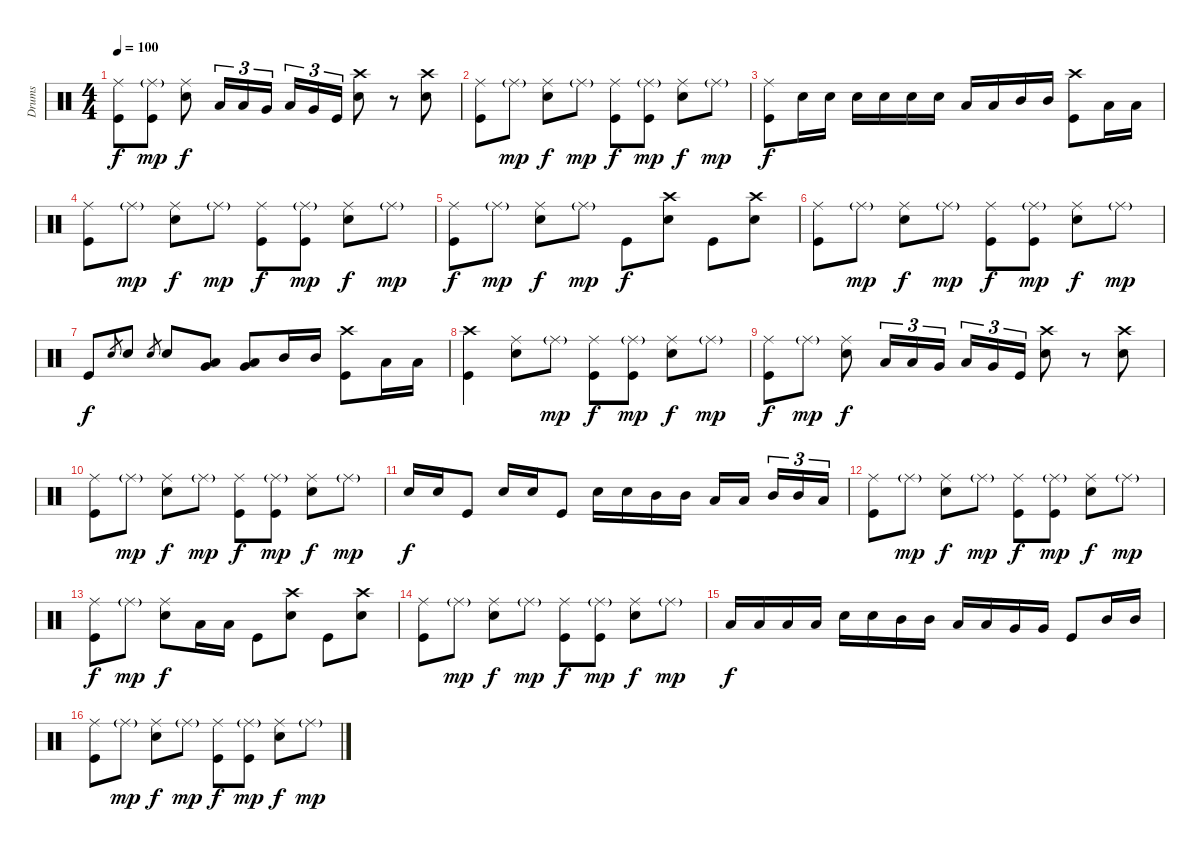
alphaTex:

\track ("Drums" "Drums") {instrument percussion}
\staff {score}
\articulation defaults
\ts (4 4)
\tempo 100
\clef neutral
\ks c
("Ride (middle)" "Kick (hit)").8{dy f} ("Ride (middle)"{g} "Kick (hit)").8{dy mp} ("Ride (middle)" "Snare (hit) 2").8{dy f} "Low Tom (hit)".16{tu (3 2)} "Low Tom (hit)".16{tu (3 2)} "Very Low Tom (hit)".16{tu (3 2)} "Low Tom (hit)".16{tu (3 2)} "Very Low Tom (hit)".16{tu (3 2)} "Kick (hit)".16{tu (3 2)} ("Crash high (hit)" "Snare (hit) 2").8 r.8 ("Crash high (hit)" "Snare (hit) 2").8 |
("Ride (middle)" "Kick (hit)").8 "Ride (middle)"{g}.8{dy mp} ("Ride (middle)" "Snare (hit) 2").8{dy f} "Ride (middle)"{g}.8{dy mp} ("Ride (middle)" "Kick (hit)").8{dy f} ("Ride (middle)"{g} "Kick (hit)").8{dy mp} ("Ride (middle)" "Snare (hit) 2").8{dy f} "Ride (middle)"{g}.8{dy mp} |
("Ride (middle)" "Kick (hit)").8{dy f} "Snare (hit) 2".16 "Snare (hit) 2".16 "Snare (hit) 2".16 "Snare (hit) 2".16 "Snare (hit) 2".16 "Snare (hit) 2".16 "Low Tom (hit)".16 "Low Tom (hit)".16 "Mid Tom (hit)".16 "Mid Tom (hit)".16 ("Crash high (hit)" "Kick (hit)").8 "Low Tom (hit)".16 "Low Tom (hit)".16 |
("Ride (middle)" "Kick (hit)").8 "Ride (middle)"{g}.8{dy mp} ("Ride (middle)" "Snare (hit) 2").8{dy f} "Ride (middle)"{g}.8{dy mp} ("Ride (middle)" "Kick (hit)").8{dy f} ("Ride (middle)"{g} "Kick (hit)").8{dy mp} ("Ride (middle)" "Snare (hit) 2").8{dy f} "Ride (middle)"{g}.8{dy mp} |
("Ride (middle)" "Kick (hit)").8{dy f} "Ride (middle)"{g}.8{dy mp} ("Ride (middle)" "Snare (hit) 2").8{dy f} "Ride (middle)"{g}.8{dy mp} "Kick (hit)".8{dy f} ("Crash high (hit)" "Snare (hit) 2").8 "Kick (hit)".8 ("Crash high (hit)" "Snare (hit) 2").8 |
("Ride (middle)" "Kick (hit)").8 "Ride (middle)"{g}.8{dy mp} ("Ride (middle)" "Snare (hit) 2").8{dy f} "Ride (middle)"{g}.8{dy mp} ("Ride (middle)" "Kick (hit)").8{dy f} ("Ride (middle)"{g} "Kick (hit)").8{dy mp} ("Ride (middle)" "Snare (hit) 2").8{dy f} "Ride (middle)"{g}.8{dy mp} |
"Kick (hit)".8{dy f} "Snare (hit) 2".8{gr} "Snare (hit) 2".8 "Snare (hit) 2".8{gr} "Snare (hit) 2".8 ("Low Tom (hit)" "Very Low Tom (hit)").8 ("Low Tom (hit)" "Very Low Tom (hit)").8 "Mid Tom (hit)".16 "Mid Tom (hit)".16 ("Crash high (hit)" "Kick (hit)").8 "Low Tom (hit)".16 "Low Tom (hit)".16 |
("Crash high (hit)" "Kick (hit)").4 ("Ride (middle)" "Snare (hit) 2").8 "Ride (middle)"{g}.8{dy mp} ("Ride (middle)" "Kick (hit)").8{dy f} ("Ride (middle)"{g} "Kick (hit)").8{dy mp} ("Ride (middle)" "Snare (hit) 2").8{dy f} "Ride (middle)"{g}.8{dy mp} |
("Ride (middle)" "Kick (hit)").8{dy f} "Ride (middle)"{g}.8{dy mp} ("Ride (middle)" "Snare (hit) 2").8{dy f} "Low Tom (hit)".16{tu (3 2)} "Low Tom (hit)".16{tu (3 2)} "Very Low Tom (hit)".16{tu (3 2)} "Low Tom (hit)".16{tu (3 2)} "Very Low Tom (hit)".16{tu (3 2)} "Kick (hit)".16{tu (3 2)} ("Crash high (hit)" "Snare (hit) 2").8 r.8 ("Crash high (hit)" "Snare (hit) 2").8 |
("Ride (middle)" "Kick (hit)").8 "Ride (middle)"{g}.8{dy mp} ("Ride (middle)" "Snare (hit) 2").8{dy f} "Ride (middle)"{g}.8{dy mp} ("Ride (middle)" "Kick (hit)").8{dy f} ("Ride (middle)"{g} "Kick (hit)").8{dy mp} ("Ride (middle)" "Snare (hit) 2").8{dy f} "Ride (middle)"{g}.8{dy mp} |
"Snare (hit) 2".16{dy f} "Snare (hit) 2".16 "Kick (hit)".8 "Snare (hit) 2".16 "Snare (hit) 2".16 "Kick (hit)".8 "Snare (hit) 2".16 "Snare (hit) 2".16 "Mid Tom (hit)".16 "Mid Tom (hit)".16 "Low Tom (hit)".16 "Low Tom (hit)".16{beam splitsecondary} "Mid Tom (hit)".16{tu (3 2)} "Mid Tom (hit)".16{tu (3 2)} "Low Tom (hit)".16{tu (3 2)} |
("Ride (middle)" "Kick (hit)").8 "Ride (middle)"{g}.8{dy mp} ("Ride (middle)" "Snare (hit) 2").8{dy f} "Ride (middle)"{g}.8{dy mp} ("Ride (middle)" "Kick (hit)").8{dy f} ("Ride (middle)"{g} "Kick (hit)").8{dy mp} ("Ride (middle)" "Snare (hit) 2").8{dy f} "Ride (middle)"{g}.8{dy mp} |
("Ride (middle)" "Kick (hit)").8{dy f} "Ride (middle)"{g}.8{dy mp} ("Ride (middle)" "Snare (hit) 2").8{dy f} "Low Tom (hit)".16 "Low Tom (hit)".16 "Kick (hit)".8 ("Crash high (hit)" "Snare (hit) 2").8 "Kick (hit)".8 ("Crash high (hit)" "Snare (hit) 2").8 |
("Ride (middle)" "Kick (hit)").8 "Ride (middle)"{g}.8{dy mp} ("Ride (middle)" "Snare (hit) 2").8{dy f} "Ride (middle)"{g}.8{dy mp} ("Ride (middle)" "Kick (hit)").8{dy f} ("Ride (middle)"{g} "Kick (hit)").8{dy mp} ("Ride (middle)" "Snare (hit) 2").8{dy f} "Ride (middle)"{g}.8{dy mp} |
"Low Tom (hit)".16{dy f} "Low Tom (hit)".16 "Low Tom (hit)".16 "Low Tom (hit)".16 "Snare (hit) 2".16 "Snare (hit) 2".16 "Mid Tom (hit)".16 "Mid Tom (hit)".16 "Low Tom (hit)".16 "Low Tom (hit)".16 "Very Low Tom (hit)".16 "Very Low Tom (hit)".16 "Kick (hit)".8 "Mid Tom (hit)".16 "Mid Tom (hit)".16 |
("Ride (middle)" "Kick (hit)").8 "Ride (middle)"{g}.8{dy mp} ("Ride (middle)" "Snare (hit) 2").8{dy f} "Ride (middle)"{g}.8{dy mp} ("Ride (middle)" "Kick (hit)").8{dy f} ("Ride (middle)"{g} "Kick (hit)").8{dy mp} ("Ride (middle)" "Snare (hit) 2").8{dy f} "Ride (middle)"{g}.8{dy mp}
